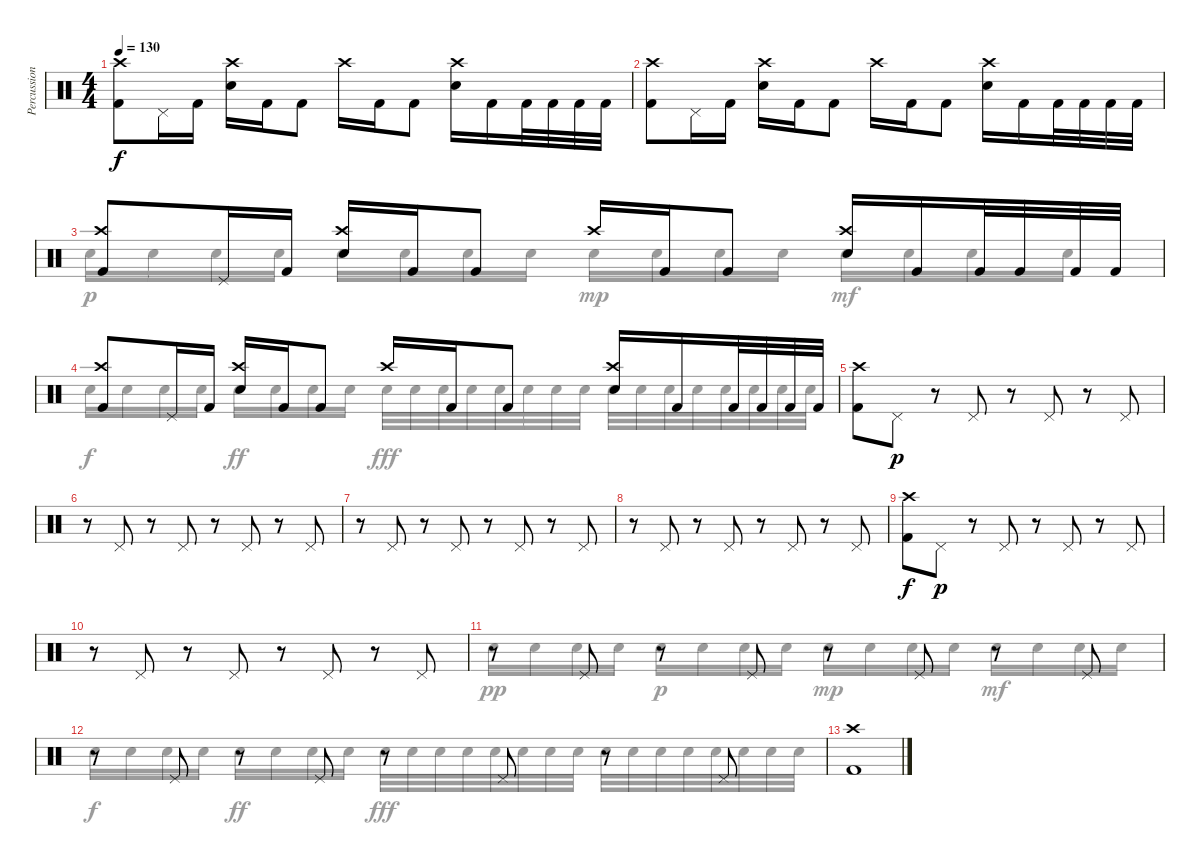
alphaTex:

\track ("Percussions" "Percussion") {instrument percussion}
\staff {score}
\articulation defaults
\voice
\ts (4 4)
\tempo 130
\clef neutral
\ks c
("Crash high (hit)" "Kick (hit) 2").8{dy f} "Pedal Hi-Hat (hit)".16 "Kick (hit) 2".16 ("Crash high (hit)" "Electric Snare (hit)").16 "Kick (hit) 2".16 "Kick (hit) 2".8 "Crash high (hit)".16 "Kick (hit) 2".16 "Kick (hit) 2".8 ("Crash high (hit)" "Electric Snare (hit)").16 "Kick (hit) 2".16 "Kick (hit) 2".32 "Kick (hit) 2".32 "Kick (hit) 2".32 "Kick (hit) 2".32 |
("Crash high (hit)" "Kick (hit) 2").8 "Pedal Hi-Hat (hit)".16 "Kick (hit) 2".16 ("Crash high (hit)" "Electric Snare (hit)").16 "Kick (hit) 2".16 "Kick (hit) 2".8 "Crash high (hit)".16 "Kick (hit) 2".16 "Kick (hit) 2".8 ("Crash high (hit)" "Electric Snare (hit)").16 "Kick (hit) 2".16 "Kick (hit) 2".32 "Kick (hit) 2".32 "Kick (hit) 2".32 "Kick (hit) 2".32 |
("Crash high (hit)" "Kick (hit) 2").8 "Pedal Hi-Hat (hit)".16 "Kick (hit) 2".16 ("Crash high (hit)" "Electric Snare (hit)").16 "Kick (hit) 2".16 "Kick (hit) 2".8 "Crash high (hit)".16 "Kick (hit) 2".16 "Kick (hit) 2".8 ("Crash high (hit)" "Electric Snare (hit)").16 "Kick (hit) 2".16 "Kick (hit) 2".32 "Kick (hit) 2".32 "Kick (hit) 2".32 "Kick (hit) 2".32 |
("Crash high (hit)" "Kick (hit) 2").8 "Pedal Hi-Hat (hit)".16 "Kick (hit) 2".16 ("Crash high (hit)" "Electric Snare (hit)").16 "Kick (hit) 2".16 "Kick (hit) 2".8 "Crash high (hit)".16 "Kick (hit) 2".16 "Kick (hit) 2".8 ("Crash high (hit)" "Electric Snare (hit)").16 "Kick (hit) 2".16 "Kick (hit) 2".32 "Kick (hit) 2".32 "Kick (hit) 2".32 "Kick (hit) 2".32 |
("Crash high (hit)" "Kick (hit) 2").8 "Pedal Hi-Hat (hit)".8{dy p} r.8 "Pedal Hi-Hat (hit)".8 r.8 "Pedal Hi-Hat (hit)".8 r.8 "Pedal Hi-Hat (hit)".8 |
r.8 "Pedal Hi-Hat (hit)".8 r.8 "Pedal Hi-Hat (hit)".8 r.8 "Pedal Hi-Hat (hit)".8 r.8 "Pedal Hi-Hat (hit)".8 |
r.8 "Pedal Hi-Hat (hit)".8 r.8 "Pedal Hi-Hat (hit)".8 r.8 "Pedal Hi-Hat (hit)".8 r.8 "Pedal Hi-Hat (hit)".8 |
r.8 "Pedal Hi-Hat (hit)".8 r.8 "Pedal Hi-Hat (hit)".8 r.8 "Pedal Hi-Hat (hit)".8 r.8 "Pedal Hi-Hat (hit)".8 |
("Crash high (hit)" "Kick (hit) 2").8{dy f} "Pedal Hi-Hat (hit)".8{dy p} r.8 "Pedal Hi-Hat (hit)".8 r.8 "Pedal Hi-Hat (hit)".8 r.8 "Pedal Hi-Hat (hit)".8 |
r.8 "Pedal Hi-Hat (hit)".8 r.8 "Pedal Hi-Hat (hit)".8 r.8 "Pedal Hi-Hat (hit)".8 r.8 "Pedal Hi-Hat (hit)".8 |
r.8 "Pedal Hi-Hat (hit)".8 r.8 "Pedal Hi-Hat (hit)".8 r.8 "Pedal Hi-Hat (hit)".8 r.8 "Pedal Hi-Hat (hit)".8 |
r.8 "Pedal Hi-Hat (hit)".8 r.8 "Pedal Hi-Hat (hit)".8 r.8 "Pedal Hi-Hat (hit)".8 r.8 "Pedal Hi-Hat (hit)".8 |
("Crash high (hit)" "Kick (hit) 2").1 |
|
|
\voice
\clef neutral
\ottava regular
\simile none
\ks c
|
|
"Snare (hit) 2".16 "Snare (hit) 2".16 "Snare (hit) 2".16 "Snare (hit) 2".16 "Snare (hit) 2".16{dy p} "Snare (hit) 2".16 "Snare (hit) 2".16 "Snare (hit) 2".16 "Snare (hit) 2".16{dy mp} "Snare (hit) 2".16 "Snare (hit) 2".16 "Snare (hit) 2".16 "Snare (hit) 2".16{dy mf} "Snare (hit) 2".16 "Snare (hit) 2".16 "Snare (hit) 2".16 |
"Snare (hit) 2".16{dy f} "Snare (hit) 2".16 "Snare (hit) 2".16 "Snare (hit) 2".16 "Snare (hit) 2".16{dy ff} "Snare (hit) 2".16 "Snare (hit) 2".16 "Snare (hit) 2".16 "Snare (hit) 2".32{dy fff} "Snare (hit) 2".32 "Snare (hit) 2".32 "Snare (hit) 2".32 "Snare (hit) 2".32 "Snare (hit) 2".32 "Snare (hit) 2".32 "Snare (hit) 2".32 "Snare (hit) 2".32 "Snare (hit) 2".32 "Snare (hit) 2".32 "Snare (hit) 2".32 "Snare (hit) 2".32 "Snare (hit) 2".32 "Snare (hit) 2".32 "Snare (hit) 2".32 |
|
|
|
|
|
|
"Snare (hit) 2".16{dy pp} "Snare (hit) 2".16 "Snare (hit) 2".16 "Snare (hit) 2".16 "Snare (hit) 2".16{dy p} "Snare (hit) 2".16 "Snare (hit) 2".16 "Snare (hit) 2".16 "Snare (hit) 2".16{dy mp} "Snare (hit) 2".16 "Snare (hit) 2".16 "Snare (hit) 2".16 "Snare (hit) 2".16{dy mf} "Snare (hit) 2".16 "Snare (hit) 2".16 "Snare (hit) 2".16 |
"Snare (hit) 2".16{dy f} "Snare (hit) 2".16 "Snare (hit) 2".16 "Snare (hit) 2".16 "Snare (hit) 2".16{dy ff} "Snare (hit) 2".16 "Snare (hit) 2".16 "Snare (hit) 2".16 "Snare (hit) 2".32{dy fff} "Snare (hit) 2".32 "Snare (hit) 2".32 "Snare (hit) 2".32 "Snare (hit) 2".32 "Snare (hit) 2".32 "Snare (hit) 2".32 "Snare (hit) 2".32 "Snare (hit) 2".32 "Snare (hit) 2".32 "Snare (hit) 2".32 "Snare (hit) 2".32 "Snare (hit) 2".32 "Snare (hit) 2".32 "Snare (hit) 2".32 "Snare (hit) 2".32 |
|
|
|
